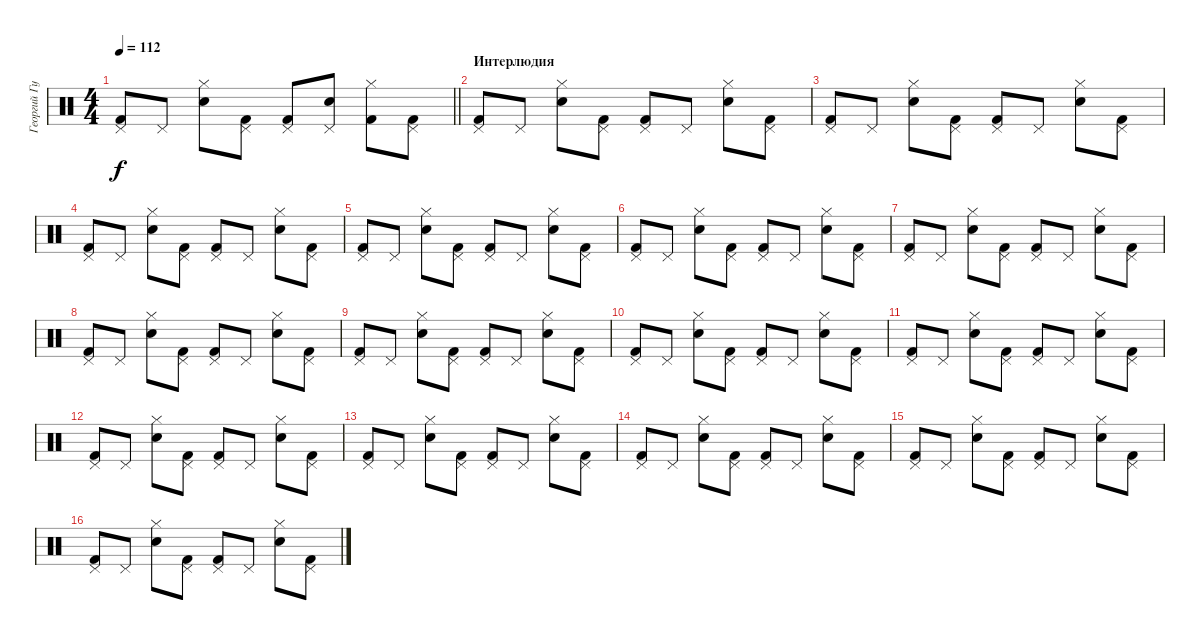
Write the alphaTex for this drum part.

\track ("Георгий Гурьянов" "Георгий Гу") {instrument percussion}
\staff {score}
\articulation defaults
\ts (4 4)
\tempo 112
\clef neutral
\barLineRight lightlight
\ks c
("Pedal Hi-Hat (hit)" "Kick (hit) 2").8{dy f} "Pedal Hi-Hat (hit)".8 ("Hi-Hat (closed)" "Electric Snare (hit)").8 ("Pedal Hi-Hat (hit)" "Kick (hit) 2").8 ("Pedal Hi-Hat (hit)" "Kick (hit) 2").8 ("Pedal Hi-Hat (hit)" "Electric Snare (hit)").8 ("Hi-Hat (closed)" "Kick (hit) 2").8 ("Pedal Hi-Hat (hit)" "Kick (hit) 2").8 |
\section ("" "Интерлюдия")
("Pedal Hi-Hat (hit)" "Kick (hit) 2").8 "Pedal Hi-Hat (hit)".8 ("Hi-Hat (closed)" "Electric Snare (hit)").8 ("Pedal Hi-Hat (hit)" "Kick (hit) 2").8 ("Pedal Hi-Hat (hit)" "Kick (hit) 2").8 "Pedal Hi-Hat (hit)".8 ("Hi-Hat (closed)" "Electric Snare (hit)").8 ("Pedal Hi-Hat (hit)" "Kick (hit) 2").8 |
("Pedal Hi-Hat (hit)" "Kick (hit) 2").8 "Pedal Hi-Hat (hit)".8 ("Hi-Hat (closed)" "Electric Snare (hit)").8 ("Pedal Hi-Hat (hit)" "Kick (hit) 2").8 ("Pedal Hi-Hat (hit)" "Kick (hit) 2").8 "Pedal Hi-Hat (hit)".8 ("Hi-Hat (closed)" "Electric Snare (hit)").8 ("Pedal Hi-Hat (hit)" "Kick (hit) 2").8 |
("Pedal Hi-Hat (hit)" "Kick (hit) 2").8 "Pedal Hi-Hat (hit)".8 ("Hi-Hat (closed)" "Electric Snare (hit)").8 ("Pedal Hi-Hat (hit)" "Kick (hit) 2").8 ("Pedal Hi-Hat (hit)" "Kick (hit) 2").8 "Pedal Hi-Hat (hit)".8 ("Hi-Hat (closed)" "Electric Snare (hit)").8 ("Pedal Hi-Hat (hit)" "Kick (hit) 2").8 |
("Pedal Hi-Hat (hit)" "Kick (hit) 2").8 "Pedal Hi-Hat (hit)".8 ("Hi-Hat (closed)" "Electric Snare (hit)").8 ("Pedal Hi-Hat (hit)" "Kick (hit) 2").8 ("Pedal Hi-Hat (hit)" "Kick (hit) 2").8 "Pedal Hi-Hat (hit)".8 ("Hi-Hat (closed)" "Electric Snare (hit)").8 ("Pedal Hi-Hat (hit)" "Kick (hit) 2").8 |
("Pedal Hi-Hat (hit)" "Kick (hit) 2").8 "Pedal Hi-Hat (hit)".8 ("Hi-Hat (closed)" "Electric Snare (hit)").8 ("Pedal Hi-Hat (hit)" "Kick (hit) 2").8 ("Pedal Hi-Hat (hit)" "Kick (hit) 2").8 "Pedal Hi-Hat (hit)".8 ("Hi-Hat (closed)" "Electric Snare (hit)").8 ("Pedal Hi-Hat (hit)" "Kick (hit) 2").8 |
("Pedal Hi-Hat (hit)" "Kick (hit) 2").8 "Pedal Hi-Hat (hit)".8 ("Hi-Hat (closed)" "Electric Snare (hit)").8 ("Pedal Hi-Hat (hit)" "Kick (hit) 2").8 ("Pedal Hi-Hat (hit)" "Kick (hit) 2").8 "Pedal Hi-Hat (hit)".8 ("Hi-Hat (closed)" "Electric Snare (hit)").8 ("Pedal Hi-Hat (hit)" "Kick (hit) 2").8 |
("Pedal Hi-Hat (hit)" "Kick (hit) 2").8 "Pedal Hi-Hat (hit)".8 ("Hi-Hat (closed)" "Electric Snare (hit)").8 ("Pedal Hi-Hat (hit)" "Kick (hit) 2").8 ("Pedal Hi-Hat (hit)" "Kick (hit) 2").8 "Pedal Hi-Hat (hit)".8 ("Hi-Hat (closed)" "Electric Snare (hit)").8 ("Pedal Hi-Hat (hit)" "Kick (hit) 2").8 |
("Pedal Hi-Hat (hit)" "Kick (hit) 2").8 "Pedal Hi-Hat (hit)".8 ("Hi-Hat (closed)" "Electric Snare (hit)").8 ("Pedal Hi-Hat (hit)" "Kick (hit) 2").8 ("Pedal Hi-Hat (hit)" "Kick (hit) 2").8 "Pedal Hi-Hat (hit)".8 ("Hi-Hat (closed)" "Electric Snare (hit)").8 ("Pedal Hi-Hat (hit)" "Kick (hit) 2").8 |
("Pedal Hi-Hat (hit)" "Kick (hit) 2").8 "Pedal Hi-Hat (hit)".8 ("Hi-Hat (closed)" "Electric Snare (hit)").8 ("Pedal Hi-Hat (hit)" "Kick (hit) 2").8 ("Pedal Hi-Hat (hit)" "Kick (hit) 2").8 "Pedal Hi-Hat (hit)".8 ("Hi-Hat (closed)" "Electric Snare (hit)").8 ("Pedal Hi-Hat (hit)" "Kick (hit) 2").8 |
("Pedal Hi-Hat (hit)" "Kick (hit) 2").8 "Pedal Hi-Hat (hit)".8 ("Hi-Hat (closed)" "Electric Snare (hit)").8 ("Pedal Hi-Hat (hit)" "Kick (hit) 2").8 ("Pedal Hi-Hat (hit)" "Kick (hit) 2").8 "Pedal Hi-Hat (hit)".8 ("Hi-Hat (closed)" "Electric Snare (hit)").8 ("Pedal Hi-Hat (hit)" "Kick (hit) 2").8 |
("Pedal Hi-Hat (hit)" "Kick (hit) 2").8 "Pedal Hi-Hat (hit)".8 ("Hi-Hat (closed)" "Electric Snare (hit)").8 ("Pedal Hi-Hat (hit)" "Kick (hit) 2").8 ("Pedal Hi-Hat (hit)" "Kick (hit) 2").8 "Pedal Hi-Hat (hit)".8 ("Hi-Hat (closed)" "Electric Snare (hit)").8 ("Pedal Hi-Hat (hit)" "Kick (hit) 2").8 |
("Pedal Hi-Hat (hit)" "Kick (hit) 2").8 "Pedal Hi-Hat (hit)".8 ("Hi-Hat (closed)" "Electric Snare (hit)").8 ("Pedal Hi-Hat (hit)" "Kick (hit) 2").8 ("Pedal Hi-Hat (hit)" "Kick (hit) 2").8 "Pedal Hi-Hat (hit)".8 ("Hi-Hat (closed)" "Electric Snare (hit)").8 ("Pedal Hi-Hat (hit)" "Kick (hit) 2").8 |
("Pedal Hi-Hat (hit)" "Kick (hit) 2").8 "Pedal Hi-Hat (hit)".8 ("Hi-Hat (closed)" "Electric Snare (hit)").8 ("Pedal Hi-Hat (hit)" "Kick (hit) 2").8 ("Pedal Hi-Hat (hit)" "Kick (hit) 2").8 "Pedal Hi-Hat (hit)".8 ("Hi-Hat (closed)" "Electric Snare (hit)").8 ("Pedal Hi-Hat (hit)" "Kick (hit) 2").8 |
("Pedal Hi-Hat (hit)" "Kick (hit) 2").8 "Pedal Hi-Hat (hit)".8 ("Hi-Hat (closed)" "Electric Snare (hit)").8 ("Pedal Hi-Hat (hit)" "Kick (hit) 2").8 ("Pedal Hi-Hat (hit)" "Kick (hit) 2").8 "Pedal Hi-Hat (hit)".8 ("Hi-Hat (closed)" "Electric Snare (hit)").8 ("Pedal Hi-Hat (hit)" "Kick (hit) 2").8 |
("Pedal Hi-Hat (hit)" "Kick (hit) 2").8 "Pedal Hi-Hat (hit)".8 ("Hi-Hat (closed)" "Electric Snare (hit)").8 ("Pedal Hi-Hat (hit)" "Kick (hit) 2").8 ("Pedal Hi-Hat (hit)" "Kick (hit) 2").8 "Pedal Hi-Hat (hit)".8 ("Hi-Hat (closed)" "Electric Snare (hit)").8 ("Pedal Hi-Hat (hit)" "Kick (hit) 2").8
